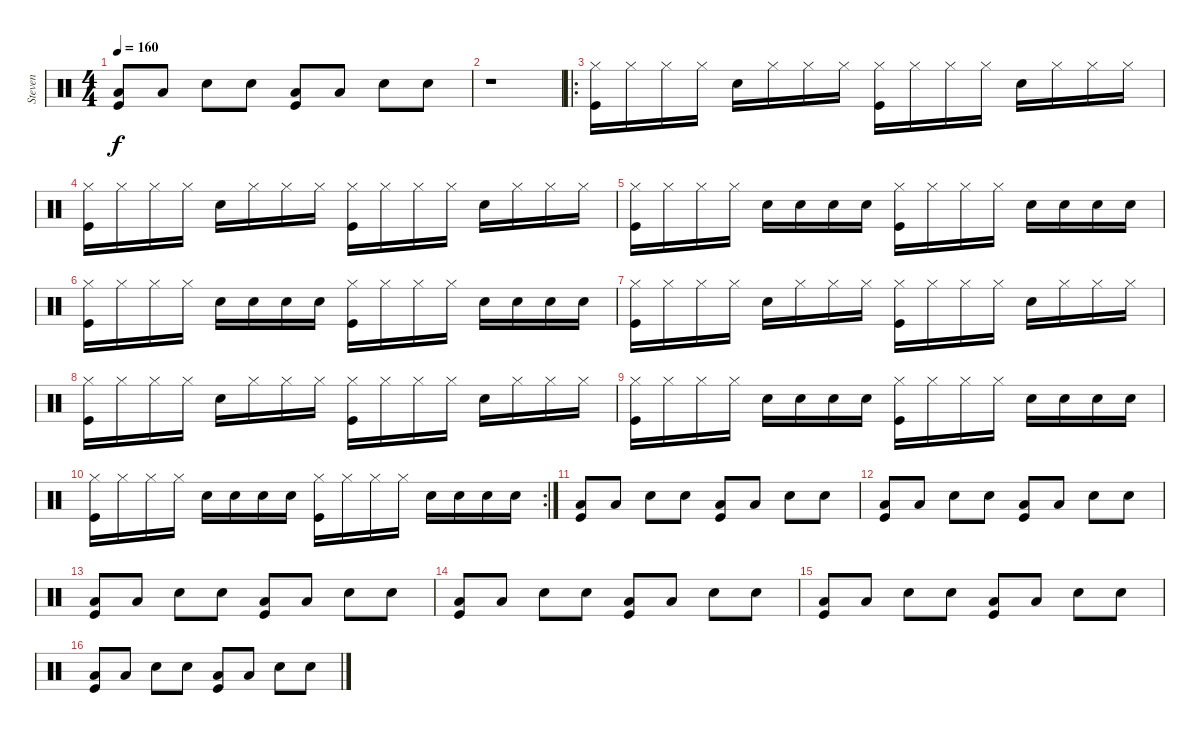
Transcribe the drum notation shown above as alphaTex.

\track ("Steven" "Steven") {instrument percussion}
\staff {score}
\articulation defaults
\ts (4 4)
\tempo 160
\clef neutral
\ks c
("Low Floor Tom (hit)" "Kick (hit)").8{dy f} "Low Floor Tom (hit)".8 "Electric Snare (hit)".8 "Electric Snare (hit)".8 ("Low Floor Tom (hit)" "Kick (hit)").8 "Low Floor Tom (hit)".8 "Electric Snare (hit)".8 "Electric Snare (hit)".8 |
r.1 |
\ro
("Hi-Hat (closed)" "Kick (hit)").16 "Hi-Hat (closed)".16 "Hi-Hat (closed)".16 "Hi-Hat (closed)".16 "Electric Snare (hit)".16 "Hi-Hat (closed)".16 "Hi-Hat (closed)".16 "Hi-Hat (closed)".16 ("Hi-Hat (closed)" "Kick (hit)").16 "Hi-Hat (closed)".16 "Hi-Hat (closed)".16 "Hi-Hat (closed)".16 "Electric Snare (hit)".16 "Hi-Hat (closed)".16 "Hi-Hat (closed)".16 "Hi-Hat (closed)".16 |
("Hi-Hat (closed)" "Kick (hit)").16 "Hi-Hat (closed)".16 "Hi-Hat (closed)".16 "Hi-Hat (closed)".16 "Electric Snare (hit)".16 "Hi-Hat (closed)".16 "Hi-Hat (closed)".16 "Hi-Hat (closed)".16 ("Hi-Hat (closed)" "Kick (hit)").16 "Hi-Hat (closed)".16 "Hi-Hat (closed)".16 "Hi-Hat (closed)".16 "Electric Snare (hit)".16 "Hi-Hat (closed)".16 "Hi-Hat (closed)".16 "Hi-Hat (closed)".16 |
("Hi-Hat (closed)" "Kick (hit)").16 "Hi-Hat (closed)".16 "Hi-Hat (closed)".16 "Hi-Hat (closed)".16 "Electric Snare (hit)".16 "Electric Snare (hit)".16 "Electric Snare (hit)".16 "Electric Snare (hit)".16 ("Hi-Hat (closed)" "Kick (hit)").16 "Hi-Hat (closed)".16 "Hi-Hat (closed)".16 "Hi-Hat (closed)".16 "Electric Snare (hit)".16 "Electric Snare (hit)".16 "Electric Snare (hit)".16 "Electric Snare (hit)".16 |
("Hi-Hat (closed)" "Kick (hit)").16 "Hi-Hat (closed)".16 "Hi-Hat (closed)".16 "Hi-Hat (closed)".16 "Electric Snare (hit)".16 "Electric Snare (hit)".16 "Electric Snare (hit)".16 "Electric Snare (hit)".16 ("Hi-Hat (closed)" "Kick (hit)").16 "Hi-Hat (closed)".16 "Hi-Hat (closed)".16 "Hi-Hat (closed)".16 "Electric Snare (hit)".16 "Electric Snare (hit)".16 "Electric Snare (hit)".16 "Electric Snare (hit)".16 |
("Hi-Hat (closed)" "Kick (hit)").16 "Hi-Hat (closed)".16 "Hi-Hat (closed)".16 "Hi-Hat (closed)".16 "Electric Snare (hit)".16 "Hi-Hat (closed)".16 "Hi-Hat (closed)".16 "Hi-Hat (closed)".16 ("Hi-Hat (closed)" "Kick (hit)").16 "Hi-Hat (closed)".16 "Hi-Hat (closed)".16 "Hi-Hat (closed)".16 "Electric Snare (hit)".16 "Hi-Hat (closed)".16 "Hi-Hat (closed)".16 "Hi-Hat (closed)".16 |
("Hi-Hat (closed)" "Kick (hit)").16 "Hi-Hat (closed)".16 "Hi-Hat (closed)".16 "Hi-Hat (closed)".16 "Electric Snare (hit)".16 "Hi-Hat (closed)".16 "Hi-Hat (closed)".16 "Hi-Hat (closed)".16 ("Hi-Hat (closed)" "Kick (hit)").16 "Hi-Hat (closed)".16 "Hi-Hat (closed)".16 "Hi-Hat (closed)".16 "Electric Snare (hit)".16 "Hi-Hat (closed)".16 "Hi-Hat (closed)".16 "Hi-Hat (closed)".16 |
("Hi-Hat (closed)" "Kick (hit)").16 "Hi-Hat (closed)".16 "Hi-Hat (closed)".16 "Hi-Hat (closed)".16 "Electric Snare (hit)".16 "Electric Snare (hit)".16 "Electric Snare (hit)".16 "Electric Snare (hit)".16 ("Hi-Hat (closed)" "Kick (hit)").16 "Hi-Hat (closed)".16 "Hi-Hat (closed)".16 "Hi-Hat (closed)".16 "Electric Snare (hit)".16 "Electric Snare (hit)".16 "Electric Snare (hit)".16 "Electric Snare (hit)".16 |
\rc 2
("Hi-Hat (closed)" "Kick (hit)").16 "Hi-Hat (closed)".16 "Hi-Hat (closed)".16 "Hi-Hat (closed)".16 "Electric Snare (hit)".16 "Electric Snare (hit)".16 "Electric Snare (hit)".16 "Electric Snare (hit)".16 ("Hi-Hat (closed)" "Kick (hit)").16 "Hi-Hat (closed)".16 "Hi-Hat (closed)".16 "Hi-Hat (closed)".16 "Electric Snare (hit)".16 "Electric Snare (hit)".16 "Electric Snare (hit)".16 "Electric Snare (hit)".16 |
("Low Floor Tom (hit)" "Kick (hit)").8 "Low Floor Tom (hit)".8 "Electric Snare (hit)".8 "Electric Snare (hit)".8 ("Low Floor Tom (hit)" "Kick (hit)").8 "Low Floor Tom (hit)".8 "Electric Snare (hit)".8 "Electric Snare (hit)".8 |
("Low Floor Tom (hit)" "Kick (hit)").8 "Low Floor Tom (hit)".8 "Electric Snare (hit)".8 "Electric Snare (hit)".8 ("Low Floor Tom (hit)" "Kick (hit)").8 "Low Floor Tom (hit)".8 "Electric Snare (hit)".8 "Electric Snare (hit)".8 |
("Low Floor Tom (hit)" "Kick (hit)").8 "Low Floor Tom (hit)".8 "Electric Snare (hit)".8 "Electric Snare (hit)".8 ("Low Floor Tom (hit)" "Kick (hit)").8 "Low Floor Tom (hit)".8 "Electric Snare (hit)".8 "Electric Snare (hit)".8 |
("Low Floor Tom (hit)" "Kick (hit)").8 "Low Floor Tom (hit)".8 "Electric Snare (hit)".8 "Electric Snare (hit)".8 ("Low Floor Tom (hit)" "Kick (hit)").8 "Low Floor Tom (hit)".8 "Electric Snare (hit)".8 "Electric Snare (hit)".8 |
("Low Floor Tom (hit)" "Kick (hit)").8 "Low Floor Tom (hit)".8 "Electric Snare (hit)".8 "Electric Snare (hit)".8 ("Low Floor Tom (hit)" "Kick (hit)").8 "Low Floor Tom (hit)".8 "Electric Snare (hit)".8 "Electric Snare (hit)".8 |
("Low Floor Tom (hit)" "Kick (hit)").8 "Low Floor Tom (hit)".8 "Electric Snare (hit)".8 "Electric Snare (hit)".8 ("Low Floor Tom (hit)" "Kick (hit)").8 "Low Floor Tom (hit)".8 "Electric Snare (hit)".8 "Electric Snare (hit)".8
